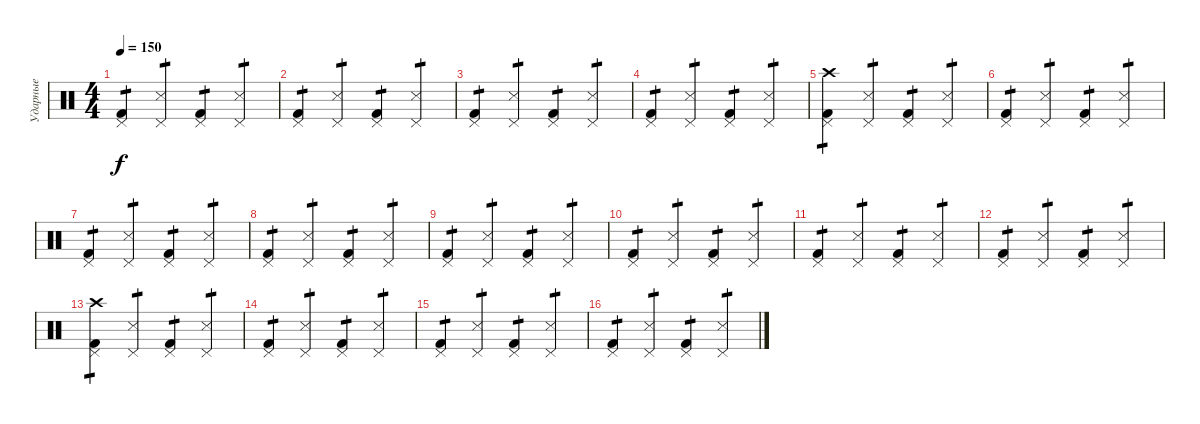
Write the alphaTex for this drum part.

\track ("Ударные" "Ударные") {instrument percussion}
\staff {score}
\articulation defaults
\ts (4 4)
\tempo 150
\clef neutral
\ks c
("Pedal Hi-Hat (hit)" "Kick (hit) 2").4{tp 1 dy f} ("Pedal Hi-Hat (hit)" "Snare (side stick) 3").4{tp 1} ("Pedal Hi-Hat (hit)" "Kick (hit) 2").4{tp 1} ("Pedal Hi-Hat (hit)" "Snare (side stick) 3").4{tp 1} |
("Pedal Hi-Hat (hit)" "Kick (hit) 2").4{tp 1} ("Pedal Hi-Hat (hit)" "Snare (side stick) 3").4{tp 1} ("Pedal Hi-Hat (hit)" "Kick (hit) 2").4{tp 1} ("Pedal Hi-Hat (hit)" "Snare (side stick) 3").4{tp 1} |
("Pedal Hi-Hat (hit)" "Kick (hit) 2").4{tp 1} ("Pedal Hi-Hat (hit)" "Snare (side stick) 3").4{tp 1} ("Pedal Hi-Hat (hit)" "Kick (hit) 2").4{tp 1} ("Pedal Hi-Hat (hit)" "Snare (side stick) 3").4{tp 1} |
("Pedal Hi-Hat (hit)" "Kick (hit) 2").4{tp 1} ("Pedal Hi-Hat (hit)" "Snare (side stick) 3").4{tp 1} ("Pedal Hi-Hat (hit)" "Kick (hit) 2").4{tp 1} ("Pedal Hi-Hat (hit)" "Snare (side stick) 3").4{tp 1} |
("Pedal Hi-Hat (hit)" "Kick (hit) 2" "Crash high (hit)").4{tp 1} ("Pedal Hi-Hat (hit)" "Snare (side stick) 3").4{tp 1} ("Pedal Hi-Hat (hit)" "Kick (hit) 2").4{tp 1} ("Pedal Hi-Hat (hit)" "Snare (side stick) 3").4{tp 1} |
("Pedal Hi-Hat (hit)" "Kick (hit) 2").4{tp 1} ("Pedal Hi-Hat (hit)" "Snare (side stick) 3").4{tp 1} ("Pedal Hi-Hat (hit)" "Kick (hit) 2").4{tp 1} ("Pedal Hi-Hat (hit)" "Snare (side stick) 3").4{tp 1} |
("Pedal Hi-Hat (hit)" "Kick (hit) 2").4{tp 1} ("Pedal Hi-Hat (hit)" "Snare (side stick) 3").4{tp 1} ("Pedal Hi-Hat (hit)" "Kick (hit) 2").4{tp 1} ("Pedal Hi-Hat (hit)" "Snare (side stick) 3").4{tp 1} |
("Pedal Hi-Hat (hit)" "Kick (hit) 2").4{tp 1} ("Pedal Hi-Hat (hit)" "Snare (side stick) 3").4{tp 1} ("Pedal Hi-Hat (hit)" "Kick (hit) 2").4{tp 1} ("Pedal Hi-Hat (hit)" "Snare (side stick) 3").4{tp 1} |
("Pedal Hi-Hat (hit)" "Kick (hit) 2").4{tp 1} ("Pedal Hi-Hat (hit)" "Snare (side stick) 3").4{tp 1} ("Pedal Hi-Hat (hit)" "Kick (hit) 2").4{tp 1} ("Pedal Hi-Hat (hit)" "Snare (side stick) 3").4{tp 1} |
("Pedal Hi-Hat (hit)" "Kick (hit) 2").4{tp 1} ("Pedal Hi-Hat (hit)" "Snare (side stick) 3").4{tp 1} ("Pedal Hi-Hat (hit)" "Kick (hit) 2").4{tp 1} ("Pedal Hi-Hat (hit)" "Snare (side stick) 3").4{tp 1} |
("Pedal Hi-Hat (hit)" "Kick (hit) 2").4{tp 1} ("Pedal Hi-Hat (hit)" "Snare (side stick) 3").4{tp 1} ("Pedal Hi-Hat (hit)" "Kick (hit) 2").4{tp 1} ("Pedal Hi-Hat (hit)" "Snare (side stick) 3").4{tp 1} |
("Pedal Hi-Hat (hit)" "Kick (hit) 2").4{tp 1} ("Pedal Hi-Hat (hit)" "Snare (side stick) 3").4{tp 1} ("Pedal Hi-Hat (hit)" "Kick (hit) 2").4{tp 1} ("Pedal Hi-Hat (hit)" "Snare (side stick) 3").4{tp 1} |
("Pedal Hi-Hat (hit)" "Kick (hit) 2" "Crash high (hit)").4{tp 1} ("Pedal Hi-Hat (hit)" "Snare (side stick) 3").4{tp 1} ("Pedal Hi-Hat (hit)" "Kick (hit) 2").4{tp 1} ("Pedal Hi-Hat (hit)" "Snare (side stick) 3").4{tp 1} |
("Pedal Hi-Hat (hit)" "Kick (hit) 2").4{tp 1} ("Pedal Hi-Hat (hit)" "Snare (side stick) 3").4{tp 1} ("Pedal Hi-Hat (hit)" "Kick (hit) 2").4{tp 1} ("Pedal Hi-Hat (hit)" "Snare (side stick) 3").4{tp 1} |
("Pedal Hi-Hat (hit)" "Kick (hit) 2").4{tp 1} ("Pedal Hi-Hat (hit)" "Snare (side stick) 3").4{tp 1} ("Pedal Hi-Hat (hit)" "Kick (hit) 2").4{tp 1} ("Pedal Hi-Hat (hit)" "Snare (side stick) 3").4{tp 1} |
("Pedal Hi-Hat (hit)" "Kick (hit) 2").4{tp 1} ("Pedal Hi-Hat (hit)" "Snare (side stick) 3").4{tp 1} ("Pedal Hi-Hat (hit)" "Kick (hit) 2").4{tp 1} ("Pedal Hi-Hat (hit)" "Snare (side stick) 3").4{tp 1}
